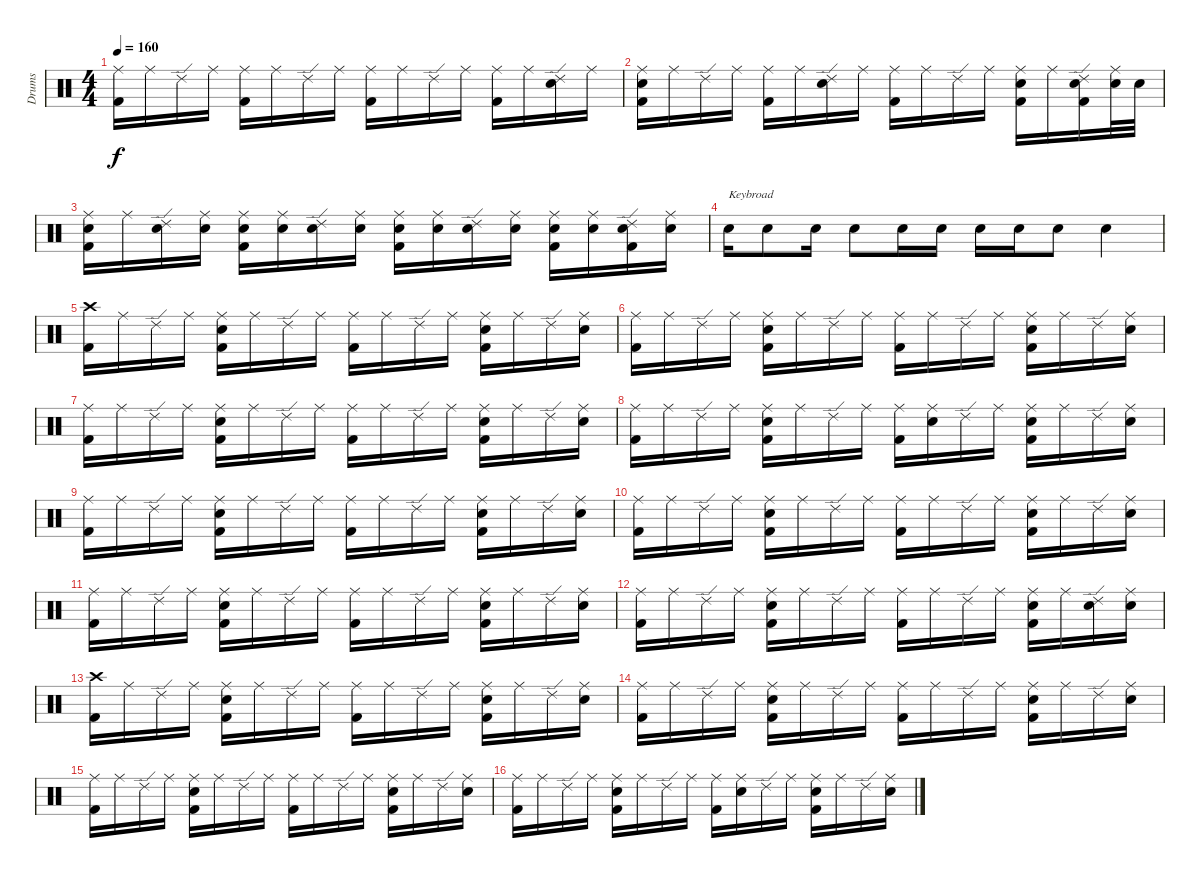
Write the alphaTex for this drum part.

\track ("Drums" "Drums") {instrument percussion}
\staff {score}
\articulation defaults
\ts (4 4)
\tempo 160
\clef neutral
\ks c
("Ride (middle)" "Kick (hit) 2").16{dy f} "Ride (middle)".16 "Ride (edge) 2".16 "Ride (middle)".16 ("Ride (middle)" "Kick (hit) 2").16 "Ride (middle)".16 "Ride (edge) 2".16 "Ride (middle)".16 ("Ride (middle)" "Kick (hit) 2").16 "Ride (middle)".16 "Ride (edge) 2".16 "Ride (middle)".16 ("Ride (middle)" "Kick (hit) 2").16 "Ride (middle)".16 ("Ride (edge) 2" "Electric Snare (hit)").16 "Ride (middle)".16 |
("Ride (middle)" "Electric Snare (hit)" "Kick (hit) 2").16 "Ride (middle)".16 "Ride (edge) 2".16 "Ride (middle)".16 ("Ride (middle)" "Kick (hit) 2").16 "Ride (middle)".16 ("Ride (edge) 2" "Electric Snare (hit)").16 "Ride (middle)".16 ("Ride (middle)" "Kick (hit) 2").16 "Ride (middle)".16 "Ride (edge) 2".16 "Ride (middle)".16 ("Ride (middle)" "Electric Snare (hit)" "Kick (hit) 2").16 "Ride (middle)".16 ("Ride (edge) 2" "Electric Snare (hit)" "Kick (hit) 2").16 ("Ride (middle)" "Electric Snare (hit)").32 "Electric Snare (hit)".32 |
("Ride (middle)" "Electric Snare (hit)" "Kick (hit) 2").16 "Ride (middle)".16 ("Ride (edge) 2" "Electric Snare (hit)").16 ("Ride (middle)" "Electric Snare (hit)").16 ("Ride (middle)" "Electric Snare (hit)" "Kick (hit) 2").16 ("Ride (middle)" "Electric Snare (hit)").16 ("Ride (edge) 2" "Electric Snare (hit)").16 ("Ride (middle)" "Electric Snare (hit)").16 ("Ride (middle)" "Electric Snare (hit)" "Kick (hit) 2").16 ("Ride (middle)" "Electric Snare (hit)").16 ("Ride (edge) 2" "Electric Snare (hit)").16 ("Ride (middle)" "Electric Snare (hit)").16 ("Ride (middle)" "Electric Snare (hit)" "Kick (hit) 2").16 ("Ride (middle)" "Electric Snare (hit)").16 ("Ride (edge) 2" "Electric Snare (hit)" "Kick (hit) 2").16 ("Ride (middle)" "Electric Snare (hit)").16 |
"Snare (hit) 2".16{txt "Keybroad"} "Snare (hit) 2".8 "Snare (hit) 2".16 "Snare (hit) 2".8 "Snare (hit) 2".16 "Snare (hit) 2".16 "Snare (hit) 2".16 "Snare (hit) 2".16 "Snare (hit) 2".8 "Snare (hit) 2".4 |
("Crash high (hit)" "Kick (hit) 2").16 "Ride (middle)".16 "Ride (edge) 2".16 "Ride (middle)".16 ("Ride (middle)" "Electric Snare (hit)" "Kick (hit) 2").16 "Ride (middle)".16 "Ride (edge) 2".16 "Ride (middle)".16 ("Ride (middle)" "Kick (hit) 2").16 "Ride (middle)".16 "Ride (edge) 2".16 "Ride (middle)".16 ("Ride (middle)" "Electric Snare (hit)" "Kick (hit) 2").16 "Ride (middle)".16 "Ride (edge) 2".16 ("Ride (middle)" "Electric Snare (hit)").16 |
("Ride (middle)" "Kick (hit) 2").16 "Ride (middle)".16 "Ride (edge) 2".16 "Ride (middle)".16 ("Ride (middle)" "Electric Snare (hit)" "Kick (hit) 2").16 "Ride (middle)".16 "Ride (edge) 2".16 "Ride (middle)".16 ("Ride (middle)" "Kick (hit) 2").16 "Ride (middle)".16 "Ride (edge) 2".16 "Ride (middle)".16 ("Ride (middle)" "Electric Snare (hit)" "Kick (hit) 2").16 "Ride (middle)".16 "Ride (edge) 2".16 ("Ride (middle)" "Electric Snare (hit)").16 |
("Ride (middle)" "Kick (hit) 2").16 "Ride (middle)".16 "Ride (edge) 2".16 "Ride (middle)".16 ("Ride (middle)" "Electric Snare (hit)" "Kick (hit) 2").16 "Ride (middle)".16 "Ride (edge) 2".16 "Ride (middle)".16 ("Ride (middle)" "Kick (hit) 2").16 "Ride (middle)".16 "Ride (edge) 2".16 "Ride (middle)".16 ("Ride (middle)" "Electric Snare (hit)" "Kick (hit) 2").16 "Ride (middle)".16 "Ride (edge) 2".16 ("Ride (middle)" "Electric Snare (hit)").16 |
("Ride (middle)" "Kick (hit) 2").16 "Ride (middle)".16 "Ride (edge) 2".16 "Ride (middle)".16 ("Ride (middle)" "Electric Snare (hit)" "Kick (hit) 2").16 "Ride (middle)".16 "Ride (edge) 2".16 "Ride (middle)".16 ("Ride (middle)" "Kick (hit) 2").16 ("Ride (middle)" "Electric Snare (hit)").16 "Ride (edge) 2".16 "Ride (middle)".16 ("Ride (middle)" "Electric Snare (hit)" "Kick (hit) 2").16 "Ride (middle)".16 "Ride (edge) 2".16 ("Ride (middle)" "Electric Snare (hit)").16 |
("Ride (middle)" "Kick (hit) 2").16 "Ride (middle)".16 "Ride (edge) 2".16 "Ride (middle)".16 ("Ride (middle)" "Electric Snare (hit)" "Kick (hit) 2").16 "Ride (middle)".16 "Ride (edge) 2".16 "Ride (middle)".16 ("Ride (middle)" "Kick (hit) 2").16 "Ride (middle)".16 "Ride (edge) 2".16 "Ride (middle)".16 ("Ride (middle)" "Electric Snare (hit)" "Kick (hit) 2").16 "Ride (middle)".16 "Ride (edge) 2".16 ("Ride (middle)" "Electric Snare (hit)").16 |
("Ride (middle)" "Kick (hit) 2").16 "Ride (middle)".16 "Ride (edge) 2".16 "Ride (middle)".16 ("Ride (middle)" "Electric Snare (hit)" "Kick (hit) 2").16 "Ride (middle)".16 "Ride (edge) 2".16 "Ride (middle)".16 ("Ride (middle)" "Kick (hit) 2").16 "Ride (middle)".16 "Ride (edge) 2".16 "Ride (middle)".16 ("Ride (middle)" "Electric Snare (hit)" "Kick (hit) 2").16 "Ride (middle)".16 "Ride (edge) 2".16 ("Ride (middle)" "Electric Snare (hit)").16 |
("Ride (middle)" "Kick (hit) 2").16 "Ride (middle)".16 "Ride (edge) 2".16 "Ride (middle)".16 ("Ride (middle)" "Electric Snare (hit)" "Kick (hit) 2").16 "Ride (middle)".16 "Ride (edge) 2".16 "Ride (middle)".16 ("Ride (middle)" "Kick (hit) 2").16 "Ride (middle)".16 "Ride (edge) 2".16 "Ride (middle)".16 ("Ride (middle)" "Electric Snare (hit)" "Kick (hit) 2").16 "Ride (middle)".16 "Ride (edge) 2".16 ("Ride (middle)" "Electric Snare (hit)").16 |
("Ride (middle)" "Kick (hit) 2").16 "Ride (middle)".16 "Ride (edge) 2".16 "Ride (middle)".16 ("Ride (middle)" "Electric Snare (hit)" "Kick (hit) 2").16 "Ride (middle)".16 "Ride (edge) 2".16 "Ride (middle)".16 ("Ride (middle)" "Kick (hit) 2").16 "Ride (middle)".16 "Ride (edge) 2".16 "Ride (middle)".16 ("Ride (middle)" "Electric Snare (hit)" "Kick (hit) 2").16 "Ride (middle)".16 ("Ride (edge) 2" "Electric Snare (hit)").16 ("Ride (middle)" "Electric Snare (hit)").16 |
("Crash high (hit)" "Kick (hit) 2").16 "Ride (middle)".16 "Ride (edge) 2".16 "Ride (middle)".16 ("Ride (middle)" "Electric Snare (hit)" "Kick (hit) 2").16 "Ride (middle)".16 "Ride (edge) 2".16 "Ride (middle)".16 ("Ride (middle)" "Kick (hit) 2").16 "Ride (middle)".16 "Ride (edge) 2".16 "Ride (middle)".16 ("Ride (middle)" "Electric Snare (hit)" "Kick (hit) 2").16 "Ride (middle)".16 "Ride (edge) 2".16 ("Ride (middle)" "Electric Snare (hit)").16 |
("Ride (middle)" "Kick (hit) 2").16 "Ride (middle)".16 "Ride (edge) 2".16 "Ride (middle)".16 ("Ride (middle)" "Electric Snare (hit)" "Kick (hit) 2").16 "Ride (middle)".16 "Ride (edge) 2".16 "Ride (middle)".16 ("Ride (middle)" "Kick (hit) 2").16 "Ride (middle)".16 "Ride (edge) 2".16 "Ride (middle)".16 ("Ride (middle)" "Electric Snare (hit)" "Kick (hit) 2").16 "Ride (middle)".16 "Ride (edge) 2".16 ("Ride (middle)" "Electric Snare (hit)").16 |
("Ride (middle)" "Kick (hit) 2").16 "Ride (middle)".16 "Ride (edge) 2".16 "Ride (middle)".16 ("Ride (middle)" "Electric Snare (hit)" "Kick (hit) 2").16 "Ride (middle)".16 "Ride (edge) 2".16 "Ride (middle)".16 ("Ride (middle)" "Kick (hit) 2").16 "Ride (middle)".16 "Ride (edge) 2".16 "Ride (middle)".16 ("Ride (middle)" "Electric Snare (hit)" "Kick (hit) 2").16 "Ride (middle)".16 "Ride (edge) 2".16 ("Ride (middle)" "Electric Snare (hit)").16 |
("Ride (middle)" "Kick (hit) 2").16 "Ride (middle)".16 "Ride (edge) 2".16 "Ride (middle)".16 ("Ride (middle)" "Electric Snare (hit)" "Kick (hit) 2").16 "Ride (middle)".16 "Ride (edge) 2".16 "Ride (middle)".16 ("Ride (middle)" "Kick (hit) 2").16 ("Ride (middle)" "Electric Snare (hit)").16 "Ride (edge) 2".16 "Ride (middle)".16 ("Ride (middle)" "Electric Snare (hit)" "Kick (hit) 2").16 "Ride (middle)".16 "Ride (edge) 2".16 ("Ride (middle)" "Electric Snare (hit)").16
